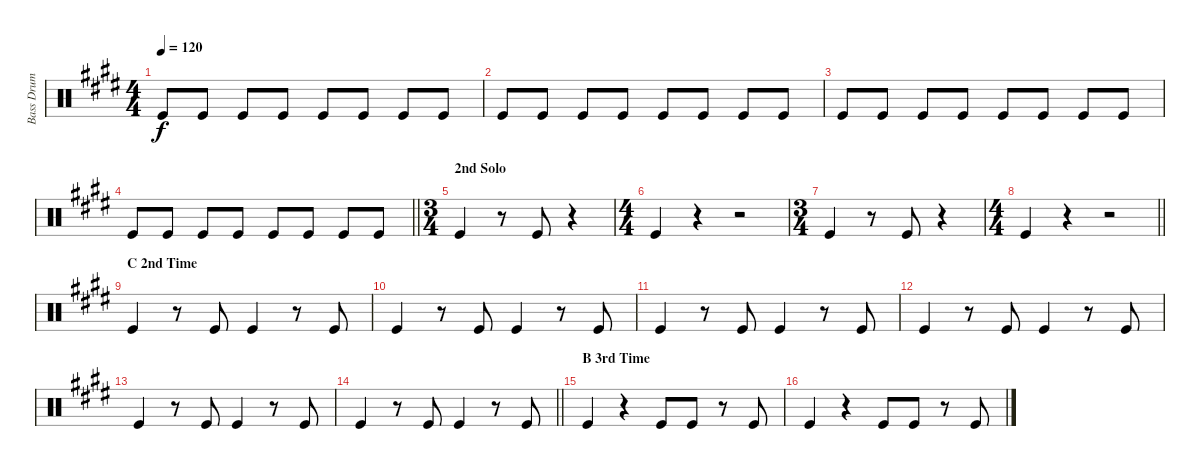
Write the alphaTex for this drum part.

\track ("Bass Drum" "Bass Drum") {instrument percussion}
\staff {score}
\articulation defaults
\ts (4 4)
\tempo 120
\clef neutral
\ks e "Kick (hit)".8{dy f} "Kick (hit)".8 "Kick (hit)".8 "Kick (hit)".8 "Kick (hit)".8 "Kick (hit)".8 "Kick (hit)".8 "Kick (hit)".8
|
"Kick (hit)".8 "Kick (hit)".8 "Kick (hit)".8 "Kick (hit)".8 "Kick (hit)".8 "Kick (hit)".8 "Kick (hit)".8 "Kick (hit)".8 |
"Kick (hit)".8 "Kick (hit)".8 "Kick (hit)".8 "Kick (hit)".8 "Kick (hit)".8 "Kick (hit)".8 "Kick (hit)".8 "Kick (hit)".8 |
\barLineRight lightlight "Kick (hit)".8 "Kick (hit)".8 "Kick (hit)".8 "Kick (hit)".8 "Kick (hit)".8 "Kick (hit)".8 "Kick (hit)".8 "Kick (hit)".8
|
\ts (3 4)
\section ("" "2nd Solo")
"Kick (hit)".4 r.8 "Kick (hit)".8 r.4 |
\ts (4 4)
"Kick (hit)".4 r.4 r.2 |
\ts (3 4)
"Kick (hit)".4 r.8 "Kick (hit)".8 r.4 |
\ts (4 4)
\barLineRight lightlight "Kick (hit)".4
r.4 r.2 |
\section ("" "C 2nd Time")
"Kick (hit)".4 r.8 "Kick (hit)".8 "Kick (hit)".4 r.8 "Kick (hit)".8 |
"Kick (hit)".4 r.8 "Kick (hit)".8 "Kick (hit)".4 r.8 "Kick (hit)".8 |
"Kick (hit)".4 r.8 "Kick (hit)".8 "Kick (hit)".4 r.8 "Kick (hit)".8 |
"Kick (hit)".4 r.8 "Kick (hit)".8 "Kick (hit)".4 r.8 "Kick (hit)".8 |
"Kick (hit)".4 r.8 "Kick (hit)".8 "Kick (hit)".4 r.8 "Kick (hit)".8 |
\barLineRight lightlight "Kick (hit)".4
r.8 "Kick (hit)".8 "Kick (hit)".4 r.8 "Kick (hit)".8 |
\section ("" "B 3rd Time")
"Kick (hit)".4 r.4 "Kick (hit)".8 "Kick (hit)".8 r.8 "Kick (hit)".8 |
"Kick (hit)".4 r.4 "Kick (hit)".8 "Kick (hit)".8 r.8 "Kick (hit)".8
